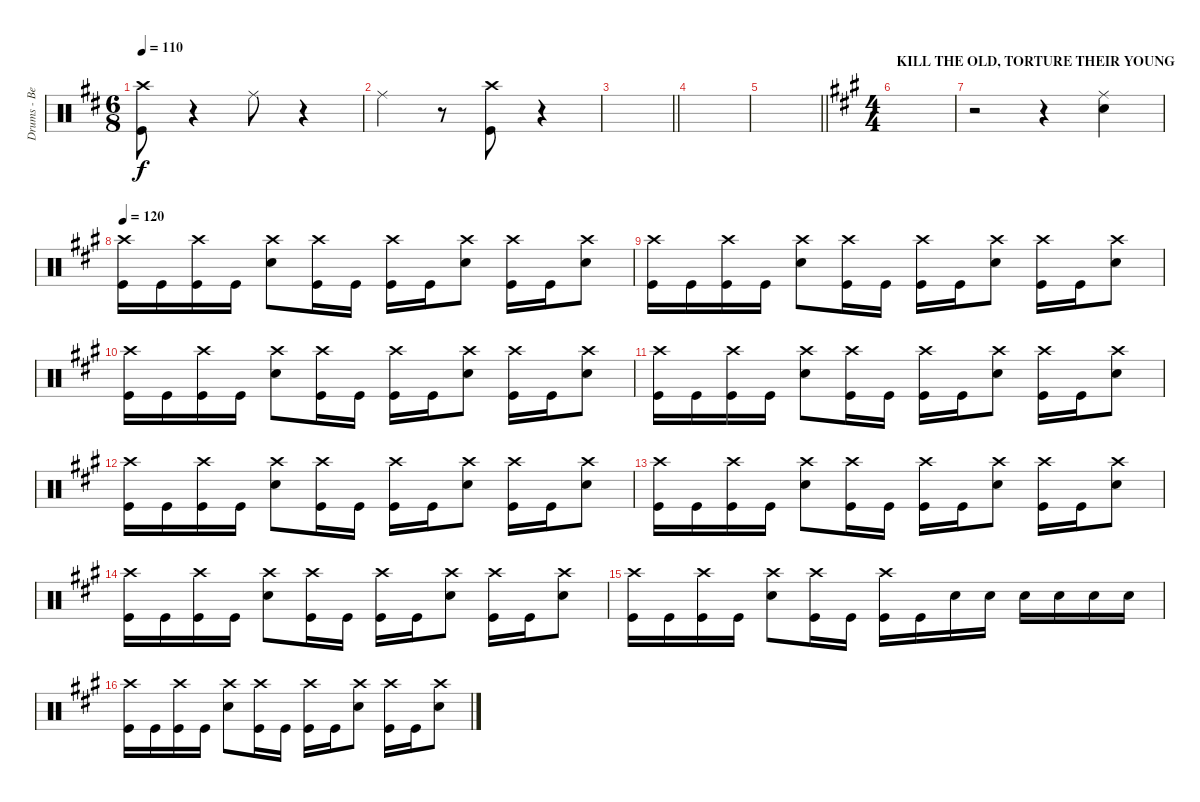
\track ("Drums - Ben Johnston" "Drums - Be") {instrument percussion}
\staff {score}
\articulation defaults
\ts (6 8)
\tempo 110
\clef neutral
\ks d
("Crash high (hit)" "Kick (hit)").8{dy f} r.4 "Ride (middle)".8 r.4 |
"Ride (middle)".4 r.8 ("Crash high (hit)" "Kick (hit)").8 r.4 |
\barLineRight lightlight
|
|
\barLineRight lightlight
|
\ts (4 4)
\section ("" "KILL THE OLD, TORTURE THEIR YOUNG")
\ks f#minor
|
r.2 r.4 ("Ride (middle)" "Snare (hit) 2").4 |
\tempo 120
("Crash high (hit)" "Kick (hit)").16 "Kick (hit)".16 ("Crash high (hit)" "Kick (hit)").16 "Kick (hit)".16 ("Crash high (hit)" "Snare (hit) 2").8 ("Crash high (hit)" "Kick (hit)").16 "Kick (hit)".16 ("Crash high (hit)" "Kick (hit)").16 "Kick (hit)".16 ("Crash high (hit)" "Snare (hit) 2").8 ("Crash high (hit)" "Kick (hit)").16 "Kick (hit)".16 ("Crash high (hit)" "Snare (hit) 2").8 |
("Crash high (hit)" "Kick (hit)").16 "Kick (hit)".16 ("Crash high (hit)" "Kick (hit)").16 "Kick (hit)".16 ("Crash high (hit)" "Snare (hit) 2").8 ("Crash high (hit)" "Kick (hit)").16 "Kick (hit)".16 ("Crash high (hit)" "Kick (hit)").16 "Kick (hit)".16 ("Crash high (hit)" "Snare (hit) 2").8 ("Crash high (hit)" "Kick (hit)").16 "Kick (hit)".16 ("Crash high (hit)" "Snare (hit) 2").8 |
("Crash high (hit)" "Kick (hit)").16 "Kick (hit)".16 ("Crash high (hit)" "Kick (hit)").16 "Kick (hit)".16 ("Crash high (hit)" "Snare (hit) 2").8 ("Crash high (hit)" "Kick (hit)").16 "Kick (hit)".16 ("Crash high (hit)" "Kick (hit)").16 "Kick (hit)".16 ("Crash high (hit)" "Snare (hit) 2").8 ("Crash high (hit)" "Kick (hit)").16 "Kick (hit)".16 ("Crash high (hit)" "Snare (hit) 2").8 |
("Crash high (hit)" "Kick (hit)").16 "Kick (hit)".16 ("Crash high (hit)" "Kick (hit)").16 "Kick (hit)".16 ("Crash high (hit)" "Snare (hit) 2").8 ("Crash high (hit)" "Kick (hit)").16 "Kick (hit)".16 ("Crash high (hit)" "Kick (hit)").16 "Kick (hit)".16 ("Crash high (hit)" "Snare (hit) 2").8 ("Crash high (hit)" "Kick (hit)").16 "Kick (hit)".16 ("Crash high (hit)" "Snare (hit) 2").8 |
("Crash high (hit)" "Kick (hit)").16 "Kick (hit)".16 ("Crash high (hit)" "Kick (hit)").16 "Kick (hit)".16 ("Crash high (hit)" "Snare (hit) 2").8 ("Crash high (hit)" "Kick (hit)").16 "Kick (hit)".16 ("Crash high (hit)" "Kick (hit)").16 "Kick (hit)".16 ("Crash high (hit)" "Snare (hit) 2").8 ("Crash high (hit)" "Kick (hit)").16 "Kick (hit)".16 ("Crash high (hit)" "Snare (hit) 2").8 |
("Crash high (hit)" "Kick (hit)").16 "Kick (hit)".16 ("Crash high (hit)" "Kick (hit)").16 "Kick (hit)".16 ("Crash high (hit)" "Snare (hit) 2").8 ("Crash high (hit)" "Kick (hit)").16 "Kick (hit)".16 ("Crash high (hit)" "Kick (hit)").16 "Kick (hit)".16 ("Crash high (hit)" "Snare (hit) 2").8 ("Crash high (hit)" "Kick (hit)").16 "Kick (hit)".16 ("Crash high (hit)" "Snare (hit) 2").8 |
("Crash high (hit)" "Kick (hit)").16 "Kick (hit)".16 ("Crash high (hit)" "Kick (hit)").16 "Kick (hit)".16 ("Crash high (hit)" "Snare (hit) 2").8 ("Crash high (hit)" "Kick (hit)").16 "Kick (hit)".16 ("Crash high (hit)" "Kick (hit)").16 "Kick (hit)".16 ("Crash high (hit)" "Snare (hit) 2").8 ("Crash high (hit)" "Kick (hit)").16 "Kick (hit)".16 ("Crash high (hit)" "Snare (hit) 2").8 |
("Crash high (hit)" "Kick (hit)").16 "Kick (hit)".16 ("Crash high (hit)" "Kick (hit)").16 "Kick (hit)".16 ("Crash high (hit)" "Snare (hit) 2").8 ("Crash high (hit)" "Kick (hit)").16 "Kick (hit)".16 ("Crash high (hit)" "Kick (hit)").16 "Kick (hit)".16 "Snare (hit) 2".16 "Snare (hit) 2".16 "Snare (hit) 2".16 "Snare (hit) 2".16 "Snare (hit) 2".16 "Snare (hit) 2".16 |
("Crash high (hit)" "Kick (hit)").16 "Kick (hit)".16 ("Crash high (hit)" "Kick (hit)").16 "Kick (hit)".16 ("Crash high (hit)" "Snare (hit) 2").8 ("Crash high (hit)" "Kick (hit)").16 "Kick (hit)".16 ("Crash high (hit)" "Kick (hit)").16 "Kick (hit)".16 ("Crash high (hit)" "Snare (hit) 2").8 ("Crash high (hit)" "Kick (hit)").16 "Kick (hit)".16 ("Crash high (hit)" "Snare (hit) 2").8
